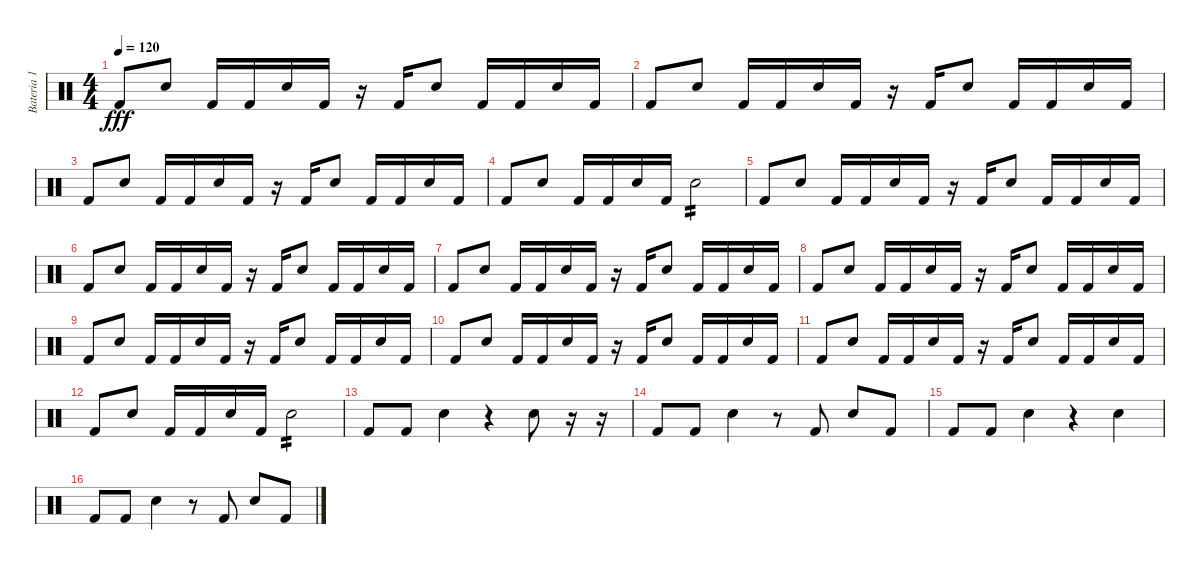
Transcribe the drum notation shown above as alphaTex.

\track ("Bateria 1" "Bateria 1") {instrument percussion}
\staff {score}
\articulation defaults
\ts (4 4)
\tempo 120
\clef neutral
\ks c "Kick (hit) 2".8{dy fff} "Electric Snare (hit)".8 "Kick (hit) 2".16 "Kick (hit) 2".16 "Electric Snare (hit)".16 "Kick (hit) 2".16
r.16 "Kick (hit) 2".16 "Electric Snare (hit)".8 "Kick (hit) 2".16 "Kick (hit) 2".16 "Electric Snare (hit)".16 "Kick (hit) 2".16 |
"Kick (hit) 2".8 "Electric Snare (hit)".8 "Kick (hit) 2".16 "Kick (hit) 2".16 "Electric Snare (hit)".16 "Kick (hit) 2".16 r.16 "Kick (hit) 2".16 "Electric Snare (hit)".8 "Kick (hit) 2".16 "Kick (hit) 2".16 "Electric Snare (hit)".16 "Kick (hit) 2".16 |
"Kick (hit) 2".8 "Electric Snare (hit)".8 "Kick (hit) 2".16 "Kick (hit) 2".16 "Electric Snare (hit)".16 "Kick (hit) 2".16 r.16 "Kick (hit) 2".16 "Electric Snare (hit)".8 "Kick (hit) 2".16 "Kick (hit) 2".16 "Electric Snare (hit)".16 "Kick (hit) 2".16 |
"Kick (hit) 2".8 "Electric Snare (hit)".8 "Kick (hit) 2".16 "Kick (hit) 2".16 "Electric Snare (hit)".16 "Kick (hit) 2".16 "Electric Snare (hit)".2{tp 2} |
"Kick (hit) 2".8 "Electric Snare (hit)".8 "Kick (hit) 2".16 "Kick (hit) 2".16 "Electric Snare (hit)".16 "Kick (hit) 2".16 r.16 "Kick (hit) 2".16 "Electric Snare (hit)".8 "Kick (hit) 2".16 "Kick (hit) 2".16 "Electric Snare (hit)".16 "Kick (hit) 2".16 |
"Kick (hit) 2".8 "Electric Snare (hit)".8 "Kick (hit) 2".16 "Kick (hit) 2".16 "Electric Snare (hit)".16 "Kick (hit) 2".16 r.16 "Kick (hit) 2".16 "Electric Snare (hit)".8 "Kick (hit) 2".16 "Kick (hit) 2".16 "Electric Snare (hit)".16 "Kick (hit) 2".16 |
"Kick (hit) 2".8 "Electric Snare (hit)".8 "Kick (hit) 2".16 "Kick (hit) 2".16 "Electric Snare (hit)".16 "Kick (hit) 2".16 r.16 "Kick (hit) 2".16 "Electric Snare (hit)".8 "Kick (hit) 2".16 "Kick (hit) 2".16 "Electric Snare (hit)".16 "Kick (hit) 2".16 |
"Kick (hit) 2".8 "Electric Snare (hit)".8 "Kick (hit) 2".16 "Kick (hit) 2".16 "Electric Snare (hit)".16 "Kick (hit) 2".16 r.16 "Kick (hit) 2".16 "Electric Snare (hit)".8 "Kick (hit) 2".16 "Kick (hit) 2".16 "Electric Snare (hit)".16 "Kick (hit) 2".16 |
"Kick (hit) 2".8 "Electric Snare (hit)".8 "Kick (hit) 2".16 "Kick (hit) 2".16 "Electric Snare (hit)".16 "Kick (hit) 2".16 r.16 "Kick (hit) 2".16 "Electric Snare (hit)".8 "Kick (hit) 2".16 "Kick (hit) 2".16 "Electric Snare (hit)".16 "Kick (hit) 2".16 |
"Kick (hit) 2".8 "Electric Snare (hit)".8 "Kick (hit) 2".16 "Kick (hit) 2".16 "Electric Snare (hit)".16 "Kick (hit) 2".16 r.16 "Kick (hit) 2".16 "Electric Snare (hit)".8 "Kick (hit) 2".16 "Kick (hit) 2".16 "Electric Snare (hit)".16 "Kick (hit) 2".16 |
"Kick (hit) 2".8 "Electric Snare (hit)".8 "Kick (hit) 2".16 "Kick (hit) 2".16 "Electric Snare (hit)".16 "Kick (hit) 2".16 r.16 "Kick (hit) 2".16 "Electric Snare (hit)".8 "Kick (hit) 2".16 "Kick (hit) 2".16 "Electric Snare (hit)".16 "Kick (hit) 2".16 |
"Kick (hit) 2".8 "Electric Snare (hit)".8 "Kick (hit) 2".16 "Kick (hit) 2".16 "Electric Snare (hit)".16 "Kick (hit) 2".16 "Electric Snare (hit)".2{tp 2} |
"Kick (hit) 2".8 "Kick (hit) 2".8 "Electric Snare (hit)".4 r.4 "Electric Snare (hit)".8 r.16 r.16 |
"Kick (hit) 2".8 "Kick (hit) 2".8 "Electric Snare (hit)".4 r.8 "Kick (hit) 2".8 "Electric Snare (hit)".8 "Kick (hit) 2".8 |
"Kick (hit) 2".8 "Kick (hit) 2".8 "Electric Snare (hit)".4 r.4 "Electric Snare (hit)".4 |
"Kick (hit) 2".8 "Kick (hit) 2".8 "Electric Snare (hit)".4 r.8 "Kick (hit) 2".8 "Electric Snare (hit)".8 "Kick (hit) 2".8
